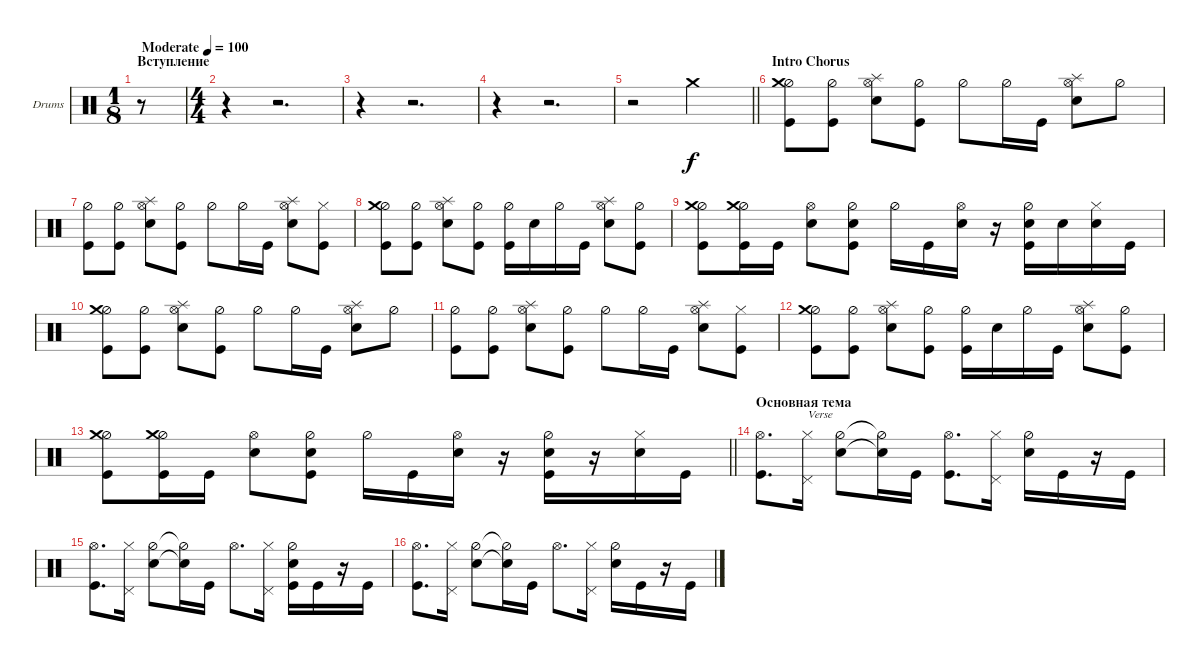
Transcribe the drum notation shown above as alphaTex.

\bracketExtendMode groupsimilarinstruments
\firstSystemTrackNameOrientation horizontal
\otherSystemsTrackNameOrientation horizontal
\track ("Drumkit" "Drums") {instrument percussion}
\staff {score}
\articulation defaults
\ts (1 8)
\beaming (8 1)
\section ("" "Вступление")
\tempo (100 "Moderate")
\clef neutral
\ks c
r.8{dy f} |
\ts (4 4)
\beaming (8 2 2 2 2)
r.4 r.2{d} |
r.4 r.2{d} |
r.4 r.2{d} |
\barLineRight lightlight
r.2 "Crash medium (hit)".2 |
\section ("" "Intro Chorus")
("Hi-Hat (half)" "Kick (hit)" "Crash medium (hit)").8 ("Kick (hit)" "Hi-Hat (half)").8 ("Hi-Hat (open)" "Snare (hit) 2" "Splash (hit)").8 ("Kick (hit)" "Hi-Hat (half)").8 "Hi-Hat (half)".8 "Hi-Hat (half)".16 "Kick (hit)".16 ("Hi-Hat (open)" "Snare (hit) 2" "Splash (hit)").8 "Hi-Hat (half)".8 |
("Hi-Hat (half)" "Kick (hit)").8 ("Kick (hit)" "Hi-Hat (half)").8 ("Hi-Hat (open)" "Snare (hit) 2" "Splash (hit)").8 ("Kick (hit)" "Hi-Hat (half)").8 "Hi-Hat (half)".8 "Hi-Hat (half)".16 "Kick (hit)".16 ("Hi-Hat (open)" "Snare (hit) 2" "Splash (hit)").8 ("Kick (hit)" "Hi-Hat (closed)").8 |
("Hi-Hat (half)" "Kick (hit)" "Crash medium (hit)").8 ("Kick (hit)" "Hi-Hat (half)").8 ("Hi-Hat (open)" "Snare (hit) 2" "Splash (hit)").8 ("Kick (hit)" "Hi-Hat (half)").8 ("Hi-Hat (half)" "Kick (hit)").16 "Snare (hit) 2".16 "Hi-Hat (half)".16 "Kick (hit)".16 ("Hi-Hat (open)" "Snare (hit) 2" "Splash (hit)").8 ("Kick (hit)" "Hi-Hat (half)").8 |
("Hi-Hat (half)" "Kick (hit)" "Crash medium (hit)").8 ("Kick (hit)" "Hi-Hat (half)" "Crash medium (hit)").16 "Kick (hit)".16 ("Hi-Hat (open)" "Snare (hit) 2").8 ("Kick (hit)" "Hi-Hat (half)" "Snare (hit) 2").8 "Hi-Hat (half)".16 "Kick (hit)".16 ("Snare (hit) 2" "Hi-Hat (open)").16 r.16 ("Snare (hit) 2" "Kick (hit)" "Hi-Hat (half)").16 "Snare (hit) 2".16 ("Snare (hit) 2" "Hi-Hat (closed)").16 "Kick (hit)".16 |
("Hi-Hat (half)" "Kick (hit)" "Crash medium (hit)").8 ("Kick (hit)" "Hi-Hat (half)").8 ("Hi-Hat (open)" "Snare (hit) 2" "Splash (hit)").8 ("Kick (hit)" "Hi-Hat (half)").8 "Hi-Hat (half)".8 "Hi-Hat (half)".16 "Kick (hit)".16 ("Hi-Hat (open)" "Snare (hit) 2" "Splash (hit)").8 "Hi-Hat (half)".8 |
("Hi-Hat (half)" "Kick (hit)").8 ("Kick (hit)" "Hi-Hat (half)").8 ("Hi-Hat (open)" "Snare (hit) 2" "Splash (hit)").8 ("Kick (hit)" "Hi-Hat (half)").8 "Hi-Hat (half)".8 "Hi-Hat (half)".16 "Kick (hit)".16 ("Hi-Hat (open)" "Snare (hit) 2" "Splash (hit)").8 ("Kick (hit)" "Hi-Hat (closed)").8 |
("Hi-Hat (half)" "Kick (hit)" "Crash medium (hit)").8 ("Kick (hit)" "Hi-Hat (half)").8 ("Hi-Hat (open)" "Snare (hit) 2" "Splash (hit)").8 ("Kick (hit)" "Hi-Hat (half)").8 ("Hi-Hat (half)" "Kick (hit)").16 "Snare (hit) 2".16 "Hi-Hat (half)".16 "Kick (hit)".16 ("Hi-Hat (open)" "Snare (hit) 2" "Splash (hit)").8 ("Kick (hit)" "Hi-Hat (half)").8 |
\barLineRight lightlight
("Hi-Hat (half)" "Kick (hit)" "Crash medium (hit)").8 ("Kick (hit)" "Hi-Hat (half)" "Crash medium (hit)").16 "Kick (hit)".16 ("Hi-Hat (open)" "Snare (hit) 2").8 ("Kick (hit)" "Hi-Hat (half)" "Snare (hit) 2").8 "Hi-Hat (half)".16 "Kick (hit)".16 ("Snare (hit) 2" "Hi-Hat (open)").16 r.16 ("Snare (hit) 2" "Kick (hit)" "Hi-Hat (half)").16 r.16 ("Snare (hit) 2" "Hi-Hat (closed)").16 "Kick (hit)".16 |
\section ("" "Основная тема")
("Hi-Hat (open)" "Kick (hit)").8{d} ("Hi-Hat (closed)" "Pedal Hi-Hat (hit)").16{txt "Verse"} ("Hi-Hat (half)" "Snare (hit) 2").8 ("Hi-Hat (half)"{t} "Snare (hit) 2"{t}).16 "Kick (hit)".16 ("Hi-Hat (open)" "Kick (hit)").8{d} ("Hi-Hat (closed)" "Pedal Hi-Hat (hit)").16 ("Hi-Hat (half)" "Snare (hit) 2").16 "Kick (hit)".16 r.16 "Kick (hit)".16 |
("Hi-Hat (open)" "Kick (hit)").8{d} ("Hi-Hat (closed)" "Pedal Hi-Hat (hit)").16 ("Hi-Hat (half)" "Snare (hit) 2").8 ("Hi-Hat (half)"{t} "Snare (hit) 2"{t}).16 "Kick (hit)".16 "Hi-Hat (open)".8{d} ("Hi-Hat (closed)" "Pedal Hi-Hat (hit)").16 ("Hi-Hat (half)" "Snare (hit) 2" "Kick (hit)").16 "Kick (hit)".16 r.16 "Kick (hit)".16 |
("Hi-Hat (open)" "Kick (hit)").8{d} ("Hi-Hat (closed)" "Pedal Hi-Hat (hit)").16 ("Hi-Hat (half)" "Snare (hit) 2").8 ("Hi-Hat (half)"{t} "Snare (hit) 2"{t}).16 "Kick (hit)".16 "Hi-Hat (open)".8{d} ("Hi-Hat (closed)" "Pedal Hi-Hat (hit)").16 ("Hi-Hat (half)" "Snare (hit) 2").16 "Kick (hit)".16 r.16 "Kick (hit)".16
